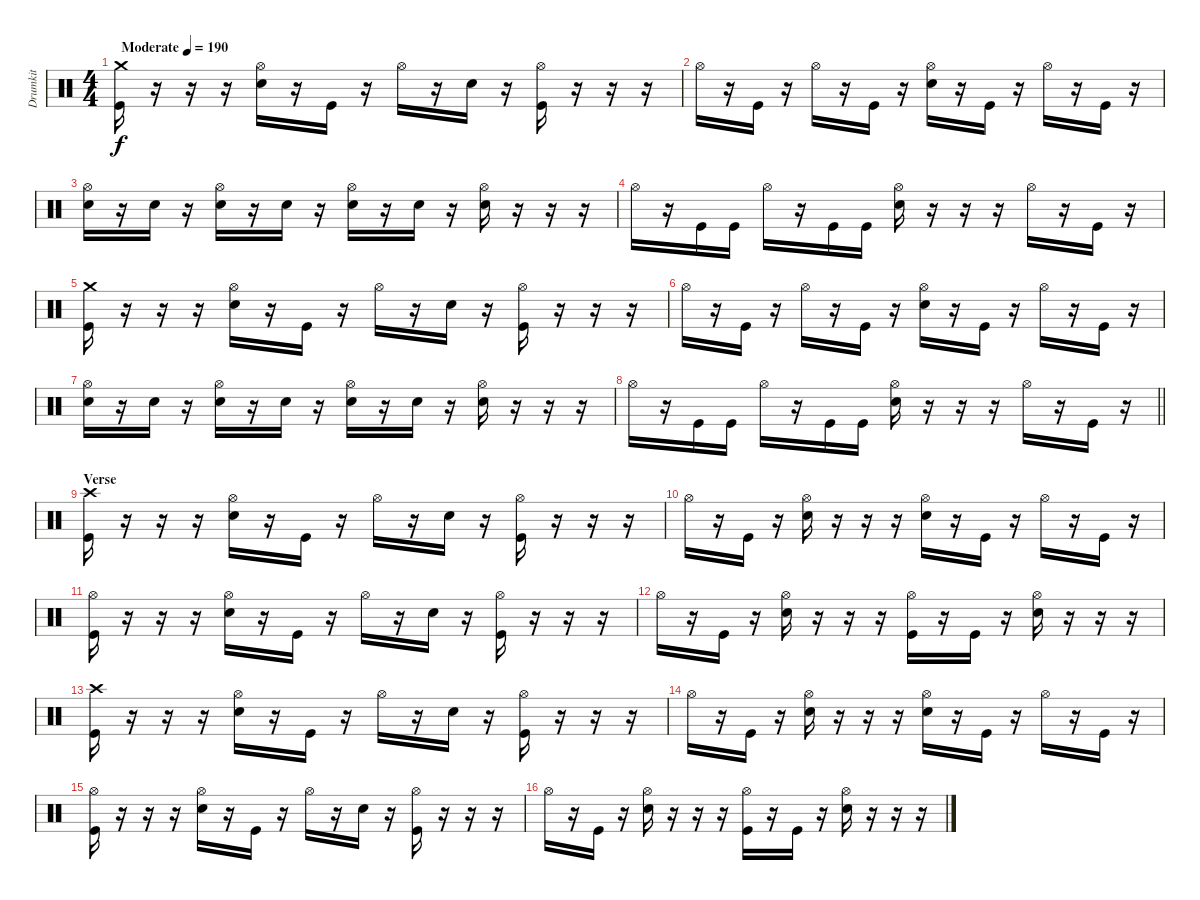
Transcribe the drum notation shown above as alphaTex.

\track ("Drumkit" "Drumkit") {instrument percussion}
\staff {score}
\articulation defaults
\ts (4 4)
\tempo (190 "Moderate")
\clef neutral
\ks c
("Crash medium (hit)" "Kick (hit)").16{dy f} r.16 r.16 r.16 ("Hi-Hat (open)" "Snare (hit) 2").16 r.16 "Kick (hit)".16 r.16 "Hi-Hat (open)".16 r.16 "Snare (hit) 2".16 r.16 ("Hi-Hat (open)" "Kick (hit)").16 r.16 r.16 r.16 |
"Hi-Hat (open)".16 r.16 "Kick (hit)".16 r.16 "Hi-Hat (open)".16 r.16 "Kick (hit)".16 r.16 ("Hi-Hat (open)" "Snare (hit) 2").16 r.16 "Kick (hit)".16 r.16 "Hi-Hat (open)".16 r.16 "Kick (hit)".16 r.16 |
("Hi-Hat (open)" "Snare (hit) 2").16 r.16 "Snare (hit) 2".16 r.16 ("Hi-Hat (open)" "Snare (hit) 2").16 r.16 "Snare (hit) 2".16 r.16 ("Hi-Hat (open)" "Snare (hit) 2").16 r.16 "Snare (hit) 2".16 r.16 ("Hi-Hat (open)" "Snare (hit) 2").16 r.16 r.16 r.16 |
"Hi-Hat (open)".16 r.16 "Kick (hit)".16 "Kick (hit)".16 "Hi-Hat (open)".16 r.16 "Kick (hit)".16 "Kick (hit)".16 ("Hi-Hat (open)" "Snare (hit) 2").16 r.16 r.16 r.16 "Hi-Hat (open)".16 r.16 "Kick (hit)".16 r.16 |
("Crash medium (hit)" "Kick (hit)").16 r.16 r.16 r.16 ("Hi-Hat (open)" "Snare (hit) 2").16 r.16 "Kick (hit)".16 r.16 "Hi-Hat (open)".16 r.16 "Snare (hit) 2".16 r.16 ("Hi-Hat (open)" "Kick (hit)").16 r.16 r.16 r.16 |
"Hi-Hat (open)".16 r.16 "Kick (hit)".16 r.16 "Hi-Hat (open)".16 r.16 "Kick (hit)".16 r.16 ("Hi-Hat (open)" "Snare (hit) 2").16 r.16 "Kick (hit)".16 r.16 "Hi-Hat (open)".16 r.16 "Kick (hit)".16 r.16 |
("Hi-Hat (open)" "Snare (hit) 2").16 r.16 "Snare (hit) 2".16 r.16 ("Hi-Hat (open)" "Snare (hit) 2").16 r.16 "Snare (hit) 2".16 r.16 ("Hi-Hat (open)" "Snare (hit) 2").16 r.16 "Snare (hit) 2".16 r.16 ("Hi-Hat (open)" "Snare (hit) 2").16 r.16 r.16 r.16 |
\barLineRight lightlight "Hi-Hat (open)".16
r.16 "Kick (hit)".16 "Kick (hit)".16 "Hi-Hat (open)".16 r.16 "Kick (hit)".16 "Kick (hit)".16 ("Hi-Hat (open)" "Snare (hit) 2").16 r.16 r.16 r.16 "Hi-Hat (open)".16 r.16 "Kick (hit)".16 r.16 |
\section ("" "Verse")
("Crash high (hit)" "Kick (hit)").16 r.16 r.16 r.16 ("Hi-Hat (open)" "Snare (hit) 2").16 r.16 "Kick (hit)".16 r.16 "Hi-Hat (open)".16 r.16 "Snare (hit) 2".16 r.16 ("Hi-Hat (open)" "Kick (hit)").16 r.16 r.16 r.16 |
"Hi-Hat (open)".16 r.16 "Kick (hit)".16 r.16 ("Hi-Hat (open)" "Snare (hit) 2").16 r.16 r.16 r.16 ("Hi-Hat (open)" "Snare (hit) 2").16 r.16 "Kick (hit)".16 r.16 "Hi-Hat (open)".16 r.16 "Kick (hit)".16 r.16 |
("Hi-Hat (open)" "Kick (hit)").16 r.16 r.16 r.16 ("Hi-Hat (open)" "Snare (hit) 2").16 r.16 "Kick (hit)".16 r.16 "Hi-Hat (open)".16 r.16 "Snare (hit) 2".16 r.16 ("Hi-Hat (open)" "Kick (hit)").16 r.16 r.16 r.16 |
"Hi-Hat (open)".16 r.16 "Kick (hit)".16 r.16 ("Hi-Hat (open)" "Snare (hit) 2").16 r.16 r.16 r.16 ("Hi-Hat (open)" "Kick (hit)").16 r.16 "Kick (hit)".16 r.16 ("Hi-Hat (open)" "Snare (hit) 2").16 r.16 r.16 r.16 |
("Crash high (hit)" "Kick (hit)").16 r.16 r.16 r.16 ("Hi-Hat (open)" "Snare (hit) 2").16 r.16 "Kick (hit)".16 r.16 "Hi-Hat (open)".16 r.16 "Snare (hit) 2".16 r.16 ("Hi-Hat (open)" "Kick (hit)").16 r.16 r.16 r.16 |
"Hi-Hat (open)".16 r.16 "Kick (hit)".16 r.16 ("Hi-Hat (open)" "Snare (hit) 2").16 r.16 r.16 r.16 ("Hi-Hat (open)" "Snare (hit) 2").16 r.16 "Kick (hit)".16 r.16 "Hi-Hat (open)".16 r.16 "Kick (hit)".16 r.16 |
("Hi-Hat (open)" "Kick (hit)").16 r.16 r.16 r.16 ("Hi-Hat (open)" "Snare (hit) 2").16 r.16 "Kick (hit)".16 r.16 "Hi-Hat (open)".16 r.16 "Snare (hit) 2".16 r.16 ("Hi-Hat (open)" "Kick (hit)").16 r.16 r.16 r.16 |
"Hi-Hat (open)".16 r.16 "Kick (hit)".16 r.16 ("Hi-Hat (open)" "Snare (hit) 2").16 r.16 r.16 r.16 ("Hi-Hat (open)" "Kick (hit)").16 r.16 "Kick (hit)".16 r.16 ("Hi-Hat (open)" "Snare (hit) 2").16 r.16 r.16 r.16
